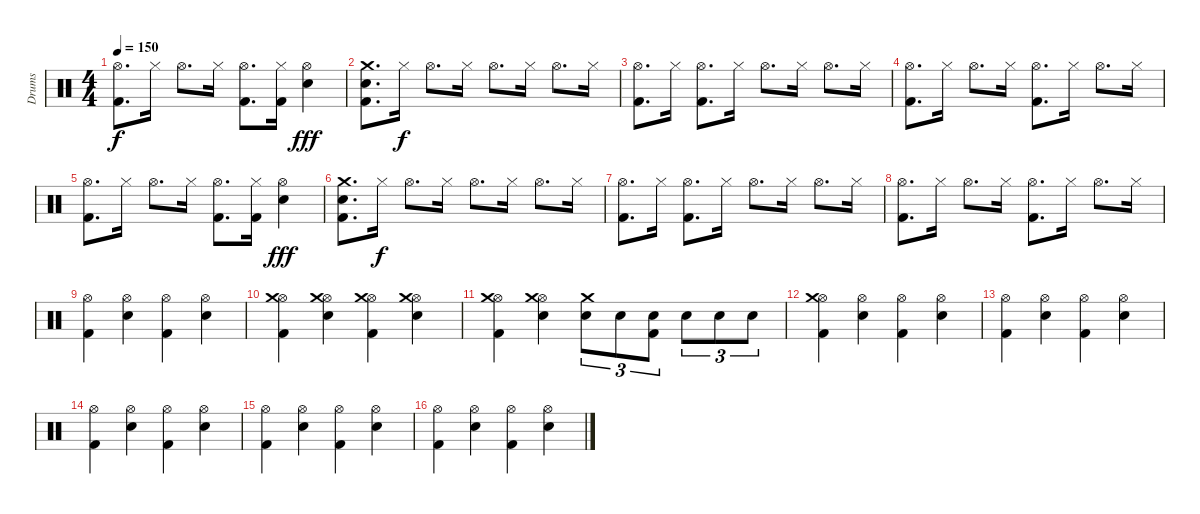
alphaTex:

\track ("Drums" "Drums") {instrument percussion}
\staff {score}
\articulation defaults
\ts (4 4)
\tempo 150
\clef neutral
\ks c
("Hi-Hat (open)" "Kick (hit) 2").8{d dy f volume 9} "Hi-Hat (closed)".16 "Hi-Hat (open)".8{d} "Hi-Hat (closed)".16 ("Hi-Hat (open)" "Kick (hit) 2").8{d} ("Hi-Hat (closed)" "Kick (hit) 2").16 ("Hi-Hat (open)" "Snare (hit) 2").4{dy fff} |
("Crash medium (hit)" "Snare (hit) 2" "Kick (hit) 2").8{d volume 9} "Hi-Hat (closed)".16{dy f} "Hi-Hat (open)".8{d} "Hi-Hat (closed)".16 "Hi-Hat (open)".8{d} "Hi-Hat (closed)".16 "Hi-Hat (open)".8{d} "Hi-Hat (closed)".16 |
("Hi-Hat (open)" "Kick (hit) 2").8{d volume 9} "Hi-Hat (closed)".16 ("Hi-Hat (open)" "Kick (hit) 2").8{d} "Hi-Hat (closed)".16 "Hi-Hat (open)".8{d} "Hi-Hat (closed)".16 "Hi-Hat (open)".8{d} "Hi-Hat (closed)".16 |
("Hi-Hat (open)" "Kick (hit) 2").8{d volume 9} "Hi-Hat (closed)".16 "Hi-Hat (open)".8{d} "Hi-Hat (closed)".16 ("Hi-Hat (open)" "Kick (hit) 2").8{d} "Hi-Hat (closed)".16 "Hi-Hat (open)".8{d} "Hi-Hat (closed)".16 |
("Hi-Hat (open)" "Kick (hit) 2").8{d volume 9} "Hi-Hat (closed)".16 "Hi-Hat (open)".8{d} "Hi-Hat (closed)".16 ("Hi-Hat (open)" "Kick (hit) 2").8{d} ("Hi-Hat (closed)" "Kick (hit) 2").16 ("Hi-Hat (open)" "Snare (hit) 2").4{dy fff} |
("Crash medium (hit)" "Snare (hit) 2" "Kick (hit) 2").8{d volume 9} "Hi-Hat (closed)".16{dy f} "Hi-Hat (open)".8{d} "Hi-Hat (closed)".16 "Hi-Hat (open)".8{d} "Hi-Hat (closed)".16 "Hi-Hat (open)".8{d} "Hi-Hat (closed)".16 |
("Hi-Hat (open)" "Kick (hit) 2").8{d volume 9} "Hi-Hat (closed)".16 ("Hi-Hat (open)" "Kick (hit) 2").8{d} "Hi-Hat (closed)".16 "Hi-Hat (open)".8{d} "Hi-Hat (closed)".16 "Hi-Hat (open)".8{d} "Hi-Hat (closed)".16 |
("Hi-Hat (open)" "Kick (hit) 2").8{d volume 9} "Hi-Hat (closed)".16 "Hi-Hat (open)".8{d} "Hi-Hat (closed)".16 ("Hi-Hat (open)" "Kick (hit) 2").8{d} "Hi-Hat (closed)".16 "Hi-Hat (open)".8{d} "Hi-Hat (closed)".16 |
("Hi-Hat (open)" "Kick (hit) 2").4{volume 13} ("Hi-Hat (open)" "Snare (hit) 2").4 ("Hi-Hat (open)" "Kick (hit) 2").4 ("Hi-Hat (open)" "Snare (hit) 2").4 |
("Hi-Hat (open)" "Crash medium (hit)" "Kick (hit) 2").4 ("Hi-Hat (open)" "Crash medium (hit)" "Snare (hit) 2").4 ("Hi-Hat (open)" "Crash medium (hit)" "Kick (hit) 2").4 ("Hi-Hat (open)" "Crash medium (hit)" "Snare (hit) 2").4 |
("Hi-Hat (open)" "Crash medium (hit)" "Kick (hit) 2").4 ("Hi-Hat (open)" "Crash medium (hit)" "Snare (hit) 2").4 ("Crash medium (hit)" "Snare (hit) 2").8{tu (3 2)} "Snare (hit) 2".8{tu (3 2)} ("Snare (hit) 2" "Kick (hit) 2").8{tu (3 2)} "Snare (hit) 2".8{tu (3 2)} "Snare (hit) 2".8{tu (3 2)} "Snare (hit) 2".8{tu (3 2)} |
("Hi-Hat (open)" "Crash medium (hit)" "Kick (hit) 2").4 ("Hi-Hat (open)" "Snare (hit) 2").4 ("Hi-Hat (open)" "Kick (hit) 2").4 ("Hi-Hat (open)" "Snare (hit) 2").4 |
("Hi-Hat (open)" "Kick (hit) 2").4 ("Hi-Hat (open)" "Snare (hit) 2").4 ("Hi-Hat (open)" "Kick (hit) 2").4 ("Hi-Hat (open)" "Snare (hit) 2").4 |
("Hi-Hat (open)" "Kick (hit) 2").4 ("Hi-Hat (open)" "Snare (hit) 2").4 ("Hi-Hat (open)" "Kick (hit) 2").4 ("Hi-Hat (open)" "Snare (hit) 2").4 |
("Hi-Hat (open)" "Kick (hit) 2").4 ("Hi-Hat (open)" "Snare (hit) 2").4 ("Hi-Hat (open)" "Kick (hit) 2").4 ("Hi-Hat (open)" "Snare (hit) 2").4 |
("Hi-Hat (open)" "Kick (hit) 2").4 ("Hi-Hat (open)" "Snare (hit) 2").4 ("Hi-Hat (open)" "Kick (hit) 2").4 ("Hi-Hat (open)" "Snare (hit) 2").4
